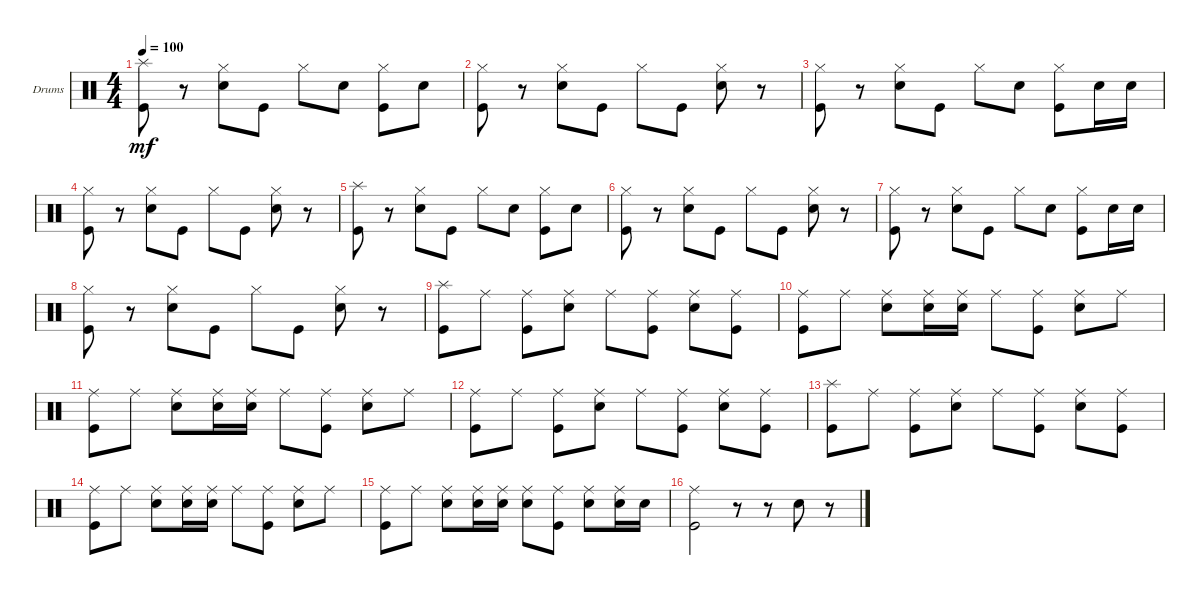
\defaultSystemsLayout 4
\bracketExtendMode groupsimilarinstruments
\firstSystemTrackNameOrientation horizontal
\otherSystemsTrackNameOrientation horizontal
\track ("Drumkit" "Drums") {instrument percussion}
\staff {score}
\articulation defaults
\ts (4 4)
\tempo 100
\clef neutral
\ks c
("Kick (hit)" "Splash (hit)").8{dy mf} r.8 ("Snare (hit) 2" "Hi-Hat (closed)").8 "Kick (hit)".8 "Hi-Hat (closed)".8 "Snare (hit) 2".8 ("Kick (hit)" "Hi-Hat (closed)").8 "Snare (hit) 2".8 |
("Kick (hit)" "Hi-Hat (closed)").8 r.8 ("Snare (hit) 2" "Hi-Hat (closed)").8 "Kick (hit)".8 "Hi-Hat (closed)".8 "Kick (hit)".8 ("Snare (hit) 2" "Hi-Hat (closed)").8 r.8 |
("Kick (hit)" "Hi-Hat (closed)").8 r.8 ("Snare (hit) 2" "Hi-Hat (closed)").8 "Kick (hit)".8 "Hi-Hat (closed)".8 "Snare (hit) 2".8 ("Kick (hit)" "Hi-Hat (closed)").8 "Snare (hit) 2".16 "Snare (hit) 2".16 |
("Kick (hit)" "Hi-Hat (closed)").8 r.8 ("Snare (hit) 2" "Hi-Hat (closed)").8 "Kick (hit)".8 "Hi-Hat (closed)".8 "Kick (hit)".8 ("Snare (hit) 2" "Hi-Hat (closed)").8 r.8 |
("Kick (hit)" "Splash (hit)").8 r.8 ("Snare (hit) 2" "Hi-Hat (closed)").8 "Kick (hit)".8 "Hi-Hat (closed)".8 "Snare (hit) 2".8 ("Kick (hit)" "Hi-Hat (closed)").8 "Snare (hit) 2".8 |
("Kick (hit)" "Hi-Hat (closed)").8 r.8 ("Snare (hit) 2" "Hi-Hat (closed)").8 "Kick (hit)".8 "Hi-Hat (closed)".8 "Kick (hit)".8 ("Snare (hit) 2" "Hi-Hat (closed)").8 r.8 |
("Kick (hit)" "Hi-Hat (closed)").8 r.8 ("Snare (hit) 2" "Hi-Hat (closed)").8 "Kick (hit)".8 "Hi-Hat (closed)".8 "Snare (hit) 2".8 ("Kick (hit)" "Hi-Hat (closed)").8 "Snare (hit) 2".16 "Snare (hit) 2".16 |
("Kick (hit)" "Hi-Hat (closed)").8 r.8 ("Snare (hit) 2" "Hi-Hat (closed)").8 "Kick (hit)".8 "Hi-Hat (closed)".8 "Kick (hit)".8 ("Snare (hit) 2" "Hi-Hat (closed)").8 r.8 |
("Kick (hit)" "Splash (hit)").8 "Ride (middle)".8 ("Kick (hit)" "Ride (middle)").8 ("Snare (hit) 2" "Ride (middle)").8 "Ride (middle)".8 ("Kick (hit)" "Ride (middle)").8 ("Snare (hit) 2" "Ride (middle)").8 ("Kick (hit)" "Ride (middle)").8 |
("Kick (hit)" "Ride (middle)").8 "Ride (middle)".8 ("Snare (hit) 2" "Ride (middle)").8 ("Snare (hit) 2" "Ride (middle)").16 ("Snare (hit) 2" "Ride (middle)").16 "Ride (middle)".8 ("Kick (hit)" "Ride (middle)").8 ("Snare (hit) 2" "Ride (middle)").8 "Ride (middle)".8 |
("Kick (hit)" "Ride (middle)").8 "Ride (middle)".8 ("Snare (hit) 2" "Ride (middle)").8 ("Snare (hit) 2" "Ride (middle)").16 ("Snare (hit) 2" "Ride (middle)").16 "Ride (middle)".8 ("Kick (hit)" "Ride (middle)").8 ("Snare (hit) 2" "Ride (middle)").8 "Ride (middle)".8 |
("Kick (hit)" "Ride (middle)").8 "Ride (middle)".8 ("Kick (hit)" "Ride (middle)").8 ("Snare (hit) 2" "Ride (middle)").8 "Ride (middle)".8 ("Kick (hit)" "Ride (middle)").8 ("Snare (hit) 2" "Ride (middle)").8 ("Kick (hit)" "Ride (middle)").8 |
("Kick (hit)" "Splash (hit)").8 "Ride (middle)".8 ("Kick (hit)" "Ride (middle)").8 ("Snare (hit) 2" "Ride (middle)").8 "Ride (middle)".8 ("Kick (hit)" "Ride (middle)").8 ("Snare (hit) 2" "Ride (middle)").8 ("Kick (hit)" "Ride (middle)").8 |
("Kick (hit)" "Ride (middle)").8 "Ride (middle)".8 ("Snare (hit) 2" "Ride (middle)").8 ("Snare (hit) 2" "Ride (middle)").16 ("Snare (hit) 2" "Ride (middle)").16 "Ride (middle)".8 ("Kick (hit)" "Ride (middle)").8 ("Snare (hit) 2" "Ride (middle)").8 "Ride (middle)".8 |
("Kick (hit)" "Ride (middle)").8 "Ride (middle)".8 ("Snare (hit) 2" "Ride (middle)").8 ("Snare (hit) 2" "Ride (middle)").16 ("Snare (hit) 2" "Ride (middle)").16 ("Ride (middle)" "Snare (hit) 2").8 ("Kick (hit)" "Ride (middle)").8 ("Snare (hit) 2" "Ride (middle)").8 ("Ride (middle)" "Snare (hit) 2").16 "Snare (hit) 2".16 |
("Kick (hit)" "Ride (middle)").2 r.8 r.8 "Snare (hit) 2".8 r.8
